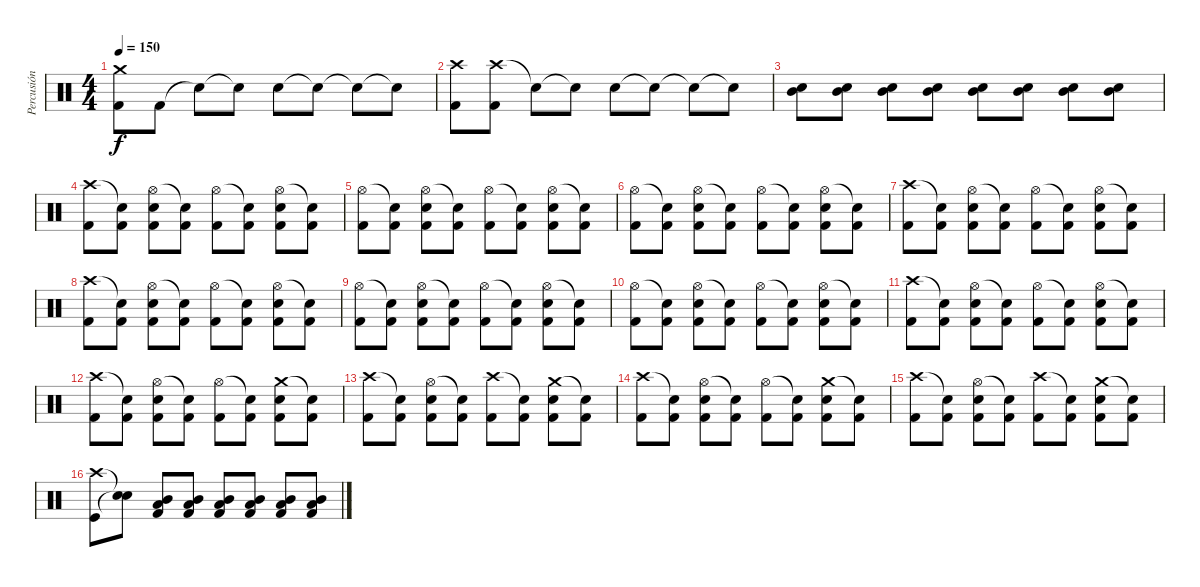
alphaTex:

\track ("Percusión" "Percusión") {instrument percussion}
\staff {score}
\articulation defaults
\ts (4 4)
\tempo 150
\clef neutral
\ks c
("Crash medium (hit)" "Kick (hit) 2").8{dy f} "Kick (hit) 2".8 "Snare (hit)"{t}.8 "Snare (hit)"{t}.8 "Electric Snare (hit)".8 "Snare (hit)"{t}.8 "Snare (hit)"{t}.8 "Snare (hit)"{t}.8 |
("Crash high (hit)" "Kick (hit) 2").8 ("Crash high (hit)" "Kick (hit) 2").8 "Snare (hit)"{t}.8 "Snare (hit)"{t}.8 "Electric Snare (hit)".8 "Snare (hit)"{t}.8 "Snare (hit)"{t}.8 "Snare (hit)"{t}.8 |
("Electric Snare (hit)" "Mid Tom (hit)").8 ("Electric Snare (hit)" "Mid Tom (hit)").8 ("Electric Snare (hit)" "Mid Tom (hit)").8 ("Electric Snare (hit)" "Mid Tom (hit)").8 ("Electric Snare (hit)" "Mid Tom (hit)").8 ("Electric Snare (hit)" "Mid Tom (hit)").8 ("Electric Snare (hit)" "Mid Tom (hit)").8 ("Electric Snare (hit)" "Mid Tom (hit)").8 |
("Crash high (hit)" "Kick (hit) 2").8 ("Snare (hit)"{t} "Kick (hit) 2").8 ("Hi-Hat (open)" "Electric Snare (hit)" "Kick (hit) 2").8 ("Snare (hit)"{t} "Kick (hit) 2").8 ("Hi-Hat (open)" "Kick (hit) 2").8 ("Snare (hit)"{t} "Kick (hit) 2").8 ("Hi-Hat (open)" "Electric Snare (hit)" "Kick (hit) 2").8 ("Snare (hit)"{t} "Kick (hit) 2").8 |
("Hi-Hat (open)" "Kick (hit) 2").8 ("Snare (hit)"{t} "Kick (hit) 2").8 ("Hi-Hat (open)" "Electric Snare (hit)" "Kick (hit) 2").8 ("Snare (hit)"{t} "Kick (hit) 2").8 ("Hi-Hat (open)" "Kick (hit) 2").8 ("Snare (hit)"{t} "Kick (hit) 2").8 ("Hi-Hat (open)" "Electric Snare (hit)" "Kick (hit) 2").8 ("Snare (hit)"{t} "Kick (hit) 2").8 |
("Hi-Hat (open)" "Kick (hit) 2").8 ("Snare (hit)"{t} "Kick (hit) 2").8 ("Hi-Hat (open)" "Electric Snare (hit)" "Kick (hit) 2").8 ("Snare (hit)"{t} "Kick (hit) 2").8 ("Hi-Hat (open)" "Kick (hit) 2").8 ("Snare (hit)"{t} "Kick (hit) 2").8 ("Hi-Hat (open)" "Electric Snare (hit)" "Kick (hit) 2").8 ("Snare (hit)"{t} "Kick (hit) 2").8 |
("Crash high (hit)" "Kick (hit) 2").8 ("Snare (hit)"{t} "Kick (hit) 2").8 ("Hi-Hat (open)" "Electric Snare (hit)" "Kick (hit) 2").8 ("Snare (hit)"{t} "Kick (hit) 2").8 ("Hi-Hat (open)" "Kick (hit) 2").8 ("Snare (hit)"{t} "Kick (hit) 2").8 ("Hi-Hat (open)" "Electric Snare (hit)" "Kick (hit) 2").8 ("Snare (hit)"{t} "Kick (hit) 2").8 |
("Crash high (hit)" "Kick (hit) 2").8 ("Snare (hit)"{t} "Kick (hit) 2").8 ("Hi-Hat (open)" "Electric Snare (hit)" "Kick (hit) 2").8 ("Snare (hit)"{t} "Kick (hit) 2").8 ("Hi-Hat (open)" "Kick (hit) 2").8 ("Snare (hit)"{t} "Kick (hit) 2").8 ("Hi-Hat (open)" "Electric Snare (hit)" "Kick (hit) 2").8 ("Snare (hit)"{t} "Kick (hit) 2").8 |
("Hi-Hat (open)" "Kick (hit) 2").8 ("Snare (hit)"{t} "Kick (hit) 2").8 ("Hi-Hat (open)" "Electric Snare (hit)" "Kick (hit) 2").8 ("Snare (hit)"{t} "Kick (hit) 2").8 ("Hi-Hat (open)" "Kick (hit) 2").8 ("Snare (hit)"{t} "Kick (hit) 2").8 ("Hi-Hat (open)" "Electric Snare (hit)" "Kick (hit) 2").8 ("Snare (hit)"{t} "Kick (hit) 2").8 |
("Hi-Hat (open)" "Kick (hit) 2").8 ("Snare (hit)"{t} "Kick (hit) 2").8 ("Hi-Hat (open)" "Electric Snare (hit)" "Kick (hit) 2").8 ("Snare (hit)"{t} "Kick (hit) 2").8 ("Hi-Hat (open)" "Kick (hit) 2").8 ("Snare (hit)"{t} "Kick (hit) 2").8 ("Hi-Hat (open)" "Electric Snare (hit)" "Kick (hit) 2").8 ("Snare (hit)"{t} "Kick (hit) 2").8 |
("Crash high (hit)" "Kick (hit) 2").8 ("Snare (hit)"{t} "Kick (hit) 2").8 ("Hi-Hat (open)" "Electric Snare (hit)" "Kick (hit) 2").8 ("Snare (hit)"{t} "Kick (hit) 2").8 ("Hi-Hat (open)" "Kick (hit) 2").8 ("Snare (hit)"{t} "Kick (hit) 2").8 ("Hi-Hat (open)" "Electric Snare (hit)" "Kick (hit) 2").8 ("Snare (hit)"{t} "Kick (hit) 2").8 |
("Crash high (hit)" "Kick (hit) 2").8 ("Snare (hit)"{t} "Kick (hit) 2").8 ("Hi-Hat (open)" "Electric Snare (hit)" "Kick (hit) 2").8 ("Snare (hit)"{t} "Kick (hit) 2").8 ("Hi-Hat (open)" "Kick (hit) 2").8 ("Snare (hit)"{t} "Kick (hit) 2").8 ("Crash medium (hit)" "Electric Snare (hit)" "Kick (hit) 2").8 ("Snare (hit)"{t} "Kick (hit) 2").8 |
("Crash high (hit)" "Kick (hit) 2").8 ("Snare (hit)"{t} "Kick (hit) 2").8 ("Hi-Hat (open)" "Electric Snare (hit)" "Kick (hit) 2").8 ("Snare (hit)"{t} "Kick (hit) 2").8 ("Crash high (hit)" "Kick (hit) 2").8 ("Snare (hit)"{t} "Kick (hit) 2").8 ("Crash medium (hit)" "Electric Snare (hit)" "Kick (hit) 2").8 ("Snare (hit)"{t} "Kick (hit) 2").8 |
("Crash high (hit)" "Kick (hit) 2").8 ("Snare (hit)"{t} "Kick (hit) 2").8 ("Hi-Hat (open)" "Electric Snare (hit)" "Kick (hit) 2").8 ("Snare (hit)"{t} "Kick (hit) 2").8 ("Hi-Hat (open)" "Kick (hit) 2").8 ("Snare (hit)"{t} "Kick (hit) 2").8 ("Crash medium (hit)" "Electric Snare (hit)" "Kick (hit) 2").8 ("Snare (hit)"{t} "Kick (hit) 2").8 |
("Crash high (hit)" "Kick (hit) 2").8 ("Snare (hit)"{t} "Kick (hit) 2").8 ("Hi-Hat (open)" "Electric Snare (hit)" "Kick (hit) 2").8 ("Snare (hit)"{t} "Kick (hit) 2").8 ("Crash high (hit)" "Kick (hit) 2").8 ("Snare (hit)"{t} "Kick (hit) 2").8 ("Crash medium (hit)" "Electric Snare (hit)" "Kick (hit) 2").8 ("Snare (hit)"{t} "Kick (hit) 2").8 |
("Crash high (hit)" "Kick (hit)").8 ("Snare (hit)"{t} "Snare (hit)"{t}).8 ("Mid Tom (hit)" "Low Tom (hit)" "Kick (hit) 2").8 ("Mid Tom (hit)" "Low Tom (hit)" "Kick (hit) 2").8 ("Mid Tom (hit)" "Low Tom (hit)" "Kick (hit) 2").8 ("Mid Tom (hit)" "Low Tom (hit)" "Kick (hit) 2").8 ("Mid Tom (hit)" "Low Tom (hit)" "Kick (hit) 2").8 ("Mid Tom (hit)" "Low Tom (hit)" "Kick (hit) 2").8
